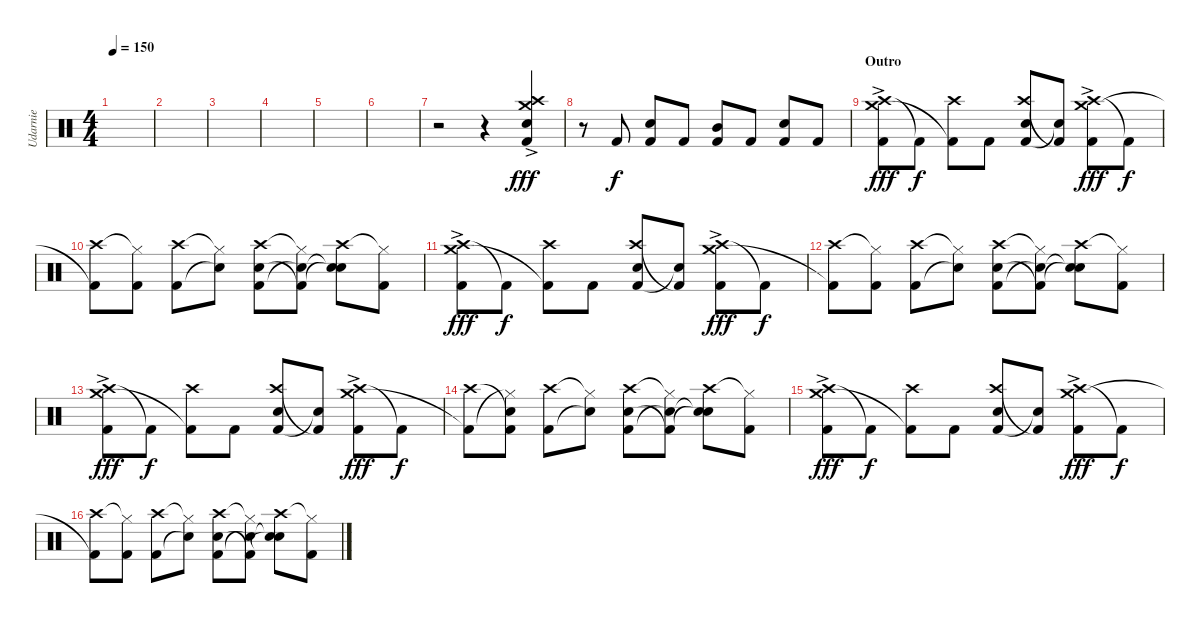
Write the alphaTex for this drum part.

\track ("Udarnie" "Udarnie") {instrument percussion}
\staff {score}
\articulation defaults
\ts (4 4)
\tempo 150
\clef neutral
\ks c
|
|
|
|
|
|
r.2 r.4 ("Kick (hit) 2" "Crash medium (hit)"{ac} "Crash high (hit)" "Snare (hit) 2").4{dy fff} |
r.8 "Kick (hit) 2".8{dy f} ("Snare (hit) 2" "Kick (hit) 2").8 "Kick (hit) 2".8 ("Mid Tom (hit)" "Kick (hit) 2").8 "Kick (hit) 2".8 ("Snare (hit) 2" "Kick (hit) 2").8 "Kick (hit) 2".8 |
\section ("" "Outro")
("Crash high (hit)" "Crash medium (hit)"{ac} "Kick (hit) 2").8{dy fff} "Kick (hit) 2"{t}.8{dy f} ("Crash high (hit)" "Kick (hit) 2"{t}).8 "Kick (hit) 2".8 ("Crash high (hit)" "Kick (hit) 2" "Snare (hit) 2").8 ("Kick (hit) 2"{t} "Snare (hit) 2"{t}).8 ("Crash high (hit)" "Crash medium (hit)"{ac} "Kick (hit) 2").8{dy fff} "Kick (hit) 2"{t}.8{dy f} |
("Crash high (hit)" "Kick (hit) 2"{t}).8 ("Hi-Hat (closed)"{t} "Kick (hit) 2").8 ("Crash high (hit)" "Kick (hit) 2").8 ("Hi-Hat (closed)"{t} "Snare (hit)"{t}).8 ("Crash high (hit)" "Snare (hit) 2" "Kick (hit) 2").8 ("Hi-Hat (closed)"{t} "Kick (hit) 2"{t} "Snare (hit) 2"{t}).8 ("Crash high (hit)" "Snare (hit)"{t} "Snare (hit)"{t}).8 ("Hi-Hat (closed)"{t} "Kick (hit) 2").8 |
("Crash high (hit)" "Crash medium (hit)"{ac} "Kick (hit) 2").8{dy fff} "Kick (hit) 2"{t}.8{dy f} ("Crash high (hit)" "Kick (hit) 2"{t}).8 "Kick (hit) 2".8 ("Crash high (hit)" "Kick (hit) 2" "Snare (hit) 2").8 ("Kick (hit) 2"{t} "Snare (hit) 2"{t}).8 ("Crash high (hit)" "Crash medium (hit)"{ac} "Kick (hit) 2").8{dy fff} "Kick (hit) 2"{t}.8{dy f} |
("Crash high (hit)" "Kick (hit) 2"{t}).8 ("Hi-Hat (closed)"{t} "Kick (hit) 2").8 ("Crash high (hit)" "Kick (hit) 2").8 ("Hi-Hat (closed)"{t} "Snare (hit)"{t}).8 ("Crash high (hit)" "Snare (hit) 2" "Kick (hit) 2").8 ("Hi-Hat (closed)"{t} "Kick (hit) 2"{t} "Snare (hit) 2"{t}).8 ("Crash high (hit)" "Snare (hit)"{t} "Snare (hit)"{t}).8 ("Hi-Hat (closed)"{t} "Kick (hit) 2").8 |
("Crash high (hit)" "Crash medium (hit)"{ac} "Kick (hit) 2").8{dy fff} "Kick (hit) 2"{t}.8{dy f} ("Crash high (hit)" "Kick (hit) 2"{t}).8 "Kick (hit) 2".8 ("Crash high (hit)" "Kick (hit) 2" "Snare (hit) 2").8 ("Kick (hit) 2"{t} "Snare (hit) 2"{t}).8 ("Crash high (hit)" "Crash medium (hit)"{ac} "Kick (hit) 2").8{dy fff} "Kick (hit) 2"{t}.8{dy f} |
("Crash high (hit)" "Kick (hit) 2"{t}).8 ("Snare (hit)"{t} "Hi-Hat (closed)"{t} "Kick (hit) 2").8 ("Crash high (hit)" "Kick (hit) 2").8 ("Hi-Hat (closed)"{t} "Snare (hit)"{t}).8 ("Crash high (hit)" "Snare (hit) 2" "Kick (hit) 2").8 ("Hi-Hat (closed)"{t} "Kick (hit) 2"{t} "Snare (hit) 2"{t}).8 ("Crash high (hit)" "Snare (hit)"{t} "Snare (hit)"{t}).8 ("Hi-Hat (closed)"{t} "Kick (hit) 2").8 |
("Crash high (hit)" "Crash medium (hit)"{ac} "Kick (hit) 2").8{dy fff} "Kick (hit) 2"{t}.8{dy f} ("Crash high (hit)" "Kick (hit) 2"{t}).8 "Kick (hit) 2".8 ("Crash high (hit)" "Kick (hit) 2" "Snare (hit) 2").8 ("Kick (hit) 2"{t} "Snare (hit) 2"{t}).8 ("Crash high (hit)" "Crash medium (hit)"{ac} "Kick (hit) 2").8{dy fff} "Kick (hit) 2"{t}.8{dy f} |
("Crash high (hit)" "Kick (hit) 2"{t}).8 ("Hi-Hat (closed)"{t} "Kick (hit) 2").8 ("Crash high (hit)" "Kick (hit) 2").8 ("Hi-Hat (closed)"{t} "Snare (hit)"{t}).8 ("Crash high (hit)" "Snare (hit) 2" "Kick (hit) 2").8 ("Hi-Hat (closed)"{t} "Kick (hit) 2"{t} "Snare (hit) 2"{t}).8 ("Crash high (hit)" "Snare (hit)"{t} "Snare (hit)"{t}).8 ("Hi-Hat (closed)"{t} "Kick (hit) 2").8
